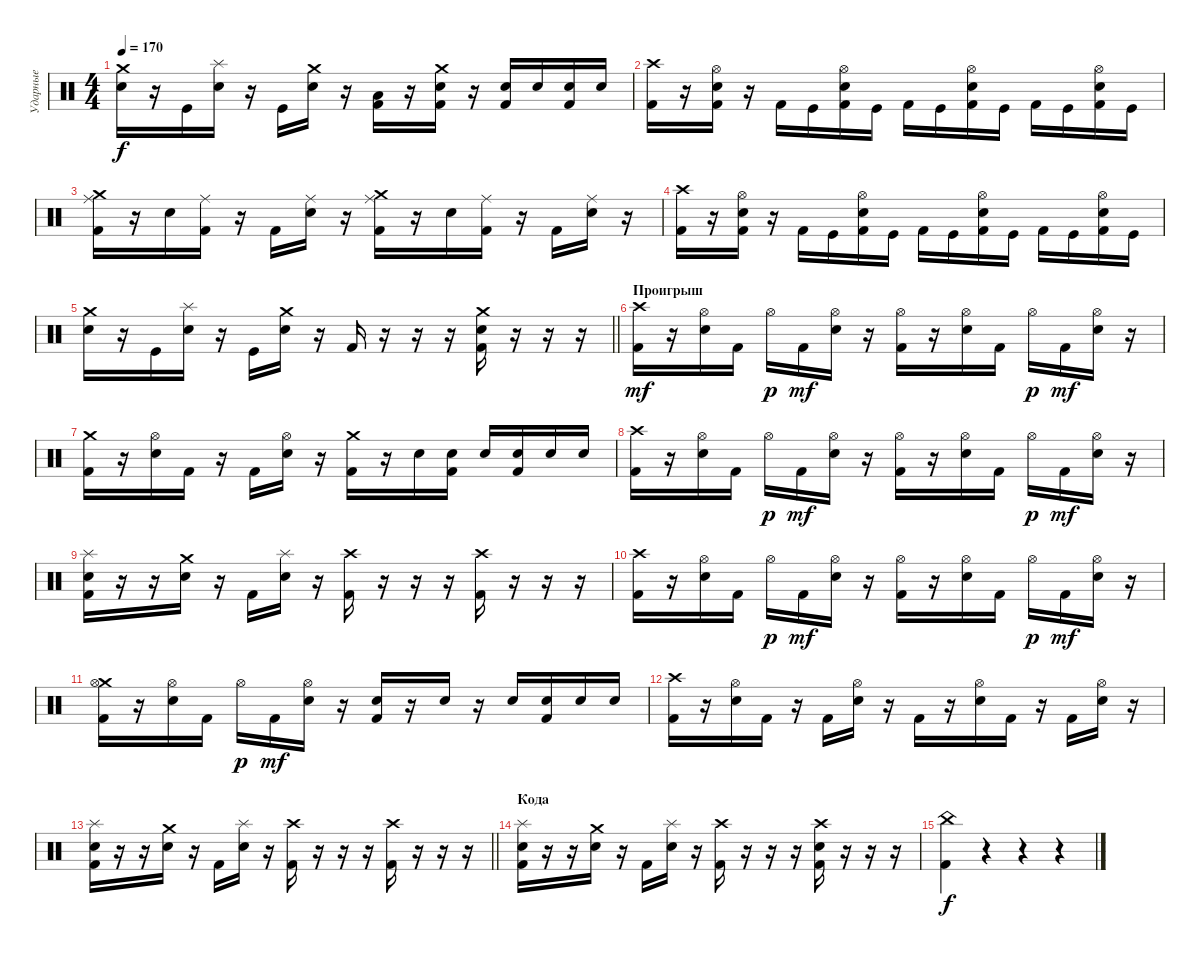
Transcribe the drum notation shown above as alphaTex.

\track ("Ударные" "Ударные") {instrument percussion}
\staff {score}
\articulation defaults
\ts (4 4)
\tempo 170
\clef neutral
\ks c
("Crash medium (hit)" "Electric Snare (hit)").16{dy f} r.16 "Kick (hit)".16 ("Splash (hit)" "Electric Snare (hit)").16 r.16 "Kick (hit)".16 ("Crash medium (hit)" "Electric Snare (hit)").16 r.16 ("Low Tom (hit)" "Kick (hit) 2").16 r.16 ("Crash medium (hit)" "Electric Snare (hit)" "Kick (hit) 2").16 r.16 ("Electric Snare (hit)" "Kick (hit) 2").16 "Electric Snare (hit)".16 ("Electric Snare (hit)" "Kick (hit) 2").16 "Electric Snare (hit)".16 |
("Crash high (hit)" "Kick (hit) 2").16 r.16 ("Hi-Hat (open)" "Electric Snare (hit)" "Kick (hit) 2").16 r.16 "Kick (hit) 2".16 "Kick (hit)".16 ("Hi-Hat (open)" "Electric Snare (hit)" "Kick (hit) 2").16 "Kick (hit)".16 "Kick (hit) 2".16 "Kick (hit)".16 ("Hi-Hat (open)" "Electric Snare (hit)" "Kick (hit) 2").16 "Kick (hit)".16 "Kick (hit) 2".16 "Kick (hit)".16 ("Hi-Hat (open)" "Electric Snare (hit)" "Kick (hit) 2").16 "Kick (hit)".16 |
("Crash medium (hit)" "Ride (middle)" "Kick (hit) 2").16 r.16 "Electric Snare (hit)".16 ("Ride (middle)" "Kick (hit) 2").16 r.16 "Kick (hit) 2".16 ("Ride (middle)" "Electric Snare (hit)").16 r.16 ("Crash medium (hit)" "Ride (middle)" "Kick (hit) 2").16 r.16 "Electric Snare (hit)".16 ("Ride (middle)" "Kick (hit) 2").16 r.16 "Kick (hit) 2".16 ("Ride (middle)" "Electric Snare (hit)").16 r.16 |
("Crash high (hit)" "Kick (hit) 2").16 r.16 ("Hi-Hat (open)" "Electric Snare (hit)" "Kick (hit) 2").16 r.16 "Kick (hit) 2".16 "Kick (hit)".16 ("Hi-Hat (open)" "Electric Snare (hit)" "Kick (hit) 2").16 "Kick (hit)".16 "Kick (hit) 2".16 "Kick (hit)".16 ("Hi-Hat (open)" "Electric Snare (hit)" "Kick (hit) 2").16 "Kick (hit)".16 "Kick (hit) 2".16 "Kick (hit)".16 ("Hi-Hat (open)" "Electric Snare (hit)" "Kick (hit) 2").16 "Kick (hit)".16 |
\barLineRight lightlight
("Crash medium (hit)" "Electric Snare (hit)").16 r.16 "Kick (hit)".16 ("Splash (hit)" "Electric Snare (hit)").16 r.16 "Kick (hit)".16 ("Crash medium (hit)" "Electric Snare (hit)").16 r.16 "Kick (hit) 2".16 r.16 r.16 r.16 ("Crash medium (hit)" "Electric Snare (hit)" "Kick (hit) 2").16 r.16 r.16 r.16 |
\section ("" "Проигрыш")
("Crash high (hit)" "Kick (hit) 2").16{dy mf} r.16 ("Hi-Hat (open)" "Electric Snare (hit)").16 "Kick (hit) 2".16 "Hi-Hat (open)".16{dy p} "Kick (hit) 2".16{dy mf} ("Hi-Hat (open)" "Electric Snare (hit)").16 r.16 ("Hi-Hat (open)" "Kick (hit) 2").16 r.16 ("Hi-Hat (open)" "Electric Snare (hit)").16 "Kick (hit) 2".16 "Hi-Hat (open)".16{dy p} "Kick (hit) 2".16{dy mf} ("Hi-Hat (open)" "Electric Snare (hit)").16 r.16 |
("Crash medium (hit)" "Kick (hit) 2").16 r.16 ("Hi-Hat (open)" "Electric Snare (hit)").16 "Kick (hit) 2".16 r.16 "Kick (hit) 2".16 ("Hi-Hat (open)" "Electric Snare (hit)").16 r.16 ("Crash medium (hit)" "Kick (hit) 2").16 r.16 "Electric Snare (hit)".16 ("Electric Snare (hit)" "Kick (hit) 2").16 "Electric Snare (hit)".16 ("Electric Snare (hit)" "Kick (hit) 2").16 "Electric Snare (hit)".16 "Electric Snare (hit)".16 |
("Crash high (hit)" "Kick (hit) 2").16 r.16 ("Hi-Hat (open)" "Electric Snare (hit)").16 "Kick (hit) 2".16 "Hi-Hat (open)".16{dy p} "Kick (hit) 2".16{dy mf} ("Hi-Hat (open)" "Electric Snare (hit)").16 r.16 ("Hi-Hat (open)" "Kick (hit) 2").16 r.16 ("Hi-Hat (open)" "Electric Snare (hit)").16 "Kick (hit) 2".16 "Hi-Hat (open)".16{dy p} "Kick (hit) 2".16{dy mf} ("Hi-Hat (open)" "Electric Snare (hit)").16 r.16 |
("Splash (hit)" "Electric Snare (hit)" "Kick (hit) 2").16 r.16 r.16 ("Crash medium (hit)" "Electric Snare (hit)").16 r.16 "Kick (hit) 2".16 ("Splash (hit)" "Electric Snare (hit)").16 r.16 ("Crash high (hit)" "Kick (hit) 2").16 r.16 r.16 r.16 ("Crash high (hit)" "Kick (hit) 2").16 r.16 r.16 r.16 |
("Crash high (hit)" "Kick (hit) 2").16 r.16 ("Hi-Hat (open)" "Electric Snare (hit)").16 "Kick (hit) 2".16 "Hi-Hat (open)".16{dy p} "Kick (hit) 2".16{dy mf} ("Hi-Hat (open)" "Electric Snare (hit)").16 r.16 ("Hi-Hat (open)" "Kick (hit) 2").16 r.16 ("Hi-Hat (open)" "Electric Snare (hit)").16 "Kick (hit) 2".16 "Hi-Hat (open)".16{dy p} "Kick (hit) 2".16{dy mf} ("Hi-Hat (open)" "Electric Snare (hit)").16 r.16 |
("Crash medium (hit)" "Hi-Hat (open)" "Kick (hit) 2").16 r.16 ("Hi-Hat (open)" "Electric Snare (hit)").16 "Kick (hit) 2".16 "Hi-Hat (open)".16{dy p} "Kick (hit) 2".16{dy mf} ("Hi-Hat (open)" "Electric Snare (hit)").16 r.16 ("Electric Snare (hit)" "Kick (hit) 2").16 r.16 "Electric Snare (hit)".16 r.16 "Electric Snare (hit)".16 ("Electric Snare (hit)" "Kick (hit) 2").16 "Electric Snare (hit)".16 "Electric Snare (hit)".16 |
("Crash high (hit)" "Kick (hit) 2").16 r.16 ("Hi-Hat (open)" "Electric Snare (hit)").16 "Kick (hit) 2".16 r.16 "Kick (hit) 2".16 ("Hi-Hat (open)" "Electric Snare (hit)").16 r.16 "Kick (hit) 2".16 r.16 ("Hi-Hat (open)" "Electric Snare (hit)").16 "Kick (hit) 2".16 r.16 "Kick (hit) 2".16 ("Hi-Hat (open)" "Electric Snare (hit)").16 r.16 |
\barLineRight lightlight
("Splash (hit)" "Electric Snare (hit)" "Kick (hit) 2").16 r.16 r.16 ("Crash medium (hit)" "Electric Snare (hit)").16 r.16 "Kick (hit) 2".16 ("Splash (hit)" "Electric Snare (hit)").16 r.16 ("Crash high (hit)" "Kick (hit) 2").16 r.16 r.16 r.16 ("Crash high (hit)" "Kick (hit) 2").16 r.16 r.16 r.16 |
\section ("" "Кода")
("Splash (hit)" "Electric Snare (hit)" "Kick (hit) 2").16 r.16 r.16 ("Crash medium (hit)" "Electric Snare (hit)").16 r.16 "Kick (hit) 2".16 ("Splash (hit)" "Electric Snare (hit)").16 r.16 ("Crash high (hit)" "Kick (hit) 2").16 r.16 r.16 r.16 ("Crash high (hit)" "Electric Snare (hit)" "Kick (hit) 2").16 r.16 r.16 r.16 |
("China (hit)" "Kick (hit) 2").4{dy f} r.4 r.4 r.4
